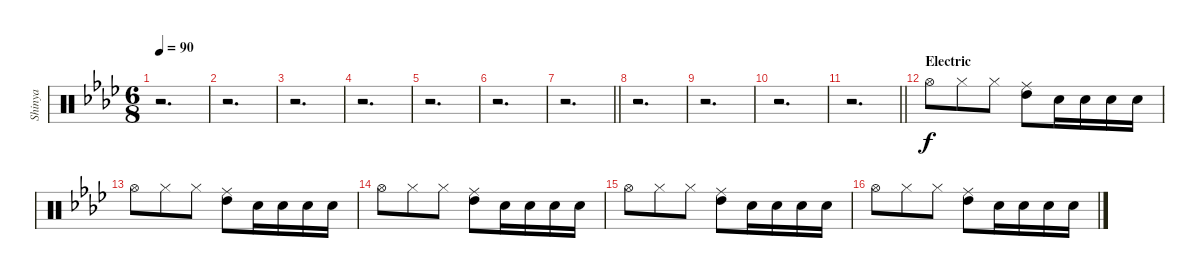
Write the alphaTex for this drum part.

\track ("Shinya" "Shinya") {instrument percussion}
\staff {score}
\articulation defaults
\ts (6 8)
\tempo 90
\clef neutral
\ks fminor
r.2{d dy f} |
r.2{d} |
r.2{d} |
r.2{d} |
r.2{d} |
r.2{d} |
\barLineRight lightlight
r.2{d} |
r.2{d} |
r.2{d} |
r.2{d} |
\barLineRight lightlight
r.2{d} |
\section ("" "Electric")
"Hi-Hat (open)".8 "Hi-Hat (closed)".8 "Hi-Hat (closed)".8 ("Ride (middle)" "High Tom (hit)").8 "Snare (hit) 2".16 "Snare (hit) 2".16 "Snare (hit) 2".16 "Snare (hit) 2".16 |
"Hi-Hat (open)".8 "Hi-Hat (closed)".8 "Hi-Hat (closed)".8 ("Ride (middle)" "High Tom (hit)").8 "Snare (hit) 2".16 "Snare (hit) 2".16 "Snare (hit) 2".16 "Snare (hit) 2".16 |
"Hi-Hat (open)".8 "Hi-Hat (closed)".8 "Hi-Hat (closed)".8 ("Ride (middle)" "High Tom (hit)").8 "Snare (hit) 2".16 "Snare (hit) 2".16 "Snare (hit) 2".16 "Snare (hit) 2".16 |
"Hi-Hat (open)".8 "Hi-Hat (closed)".8 "Hi-Hat (closed)".8 ("Ride (middle)" "High Tom (hit)").8 "Snare (hit) 2".16 "Snare (hit) 2".16 "Snare (hit) 2".16 "Snare (hit) 2".16 |
"Hi-Hat (open)".8 "Hi-Hat (closed)".8 "Hi-Hat (closed)".8 ("Ride (middle)" "High Tom (hit)").8 "Snare (hit) 2".16 "Snare (hit) 2".16 "Snare (hit) 2".16 "Snare (hit) 2".16
